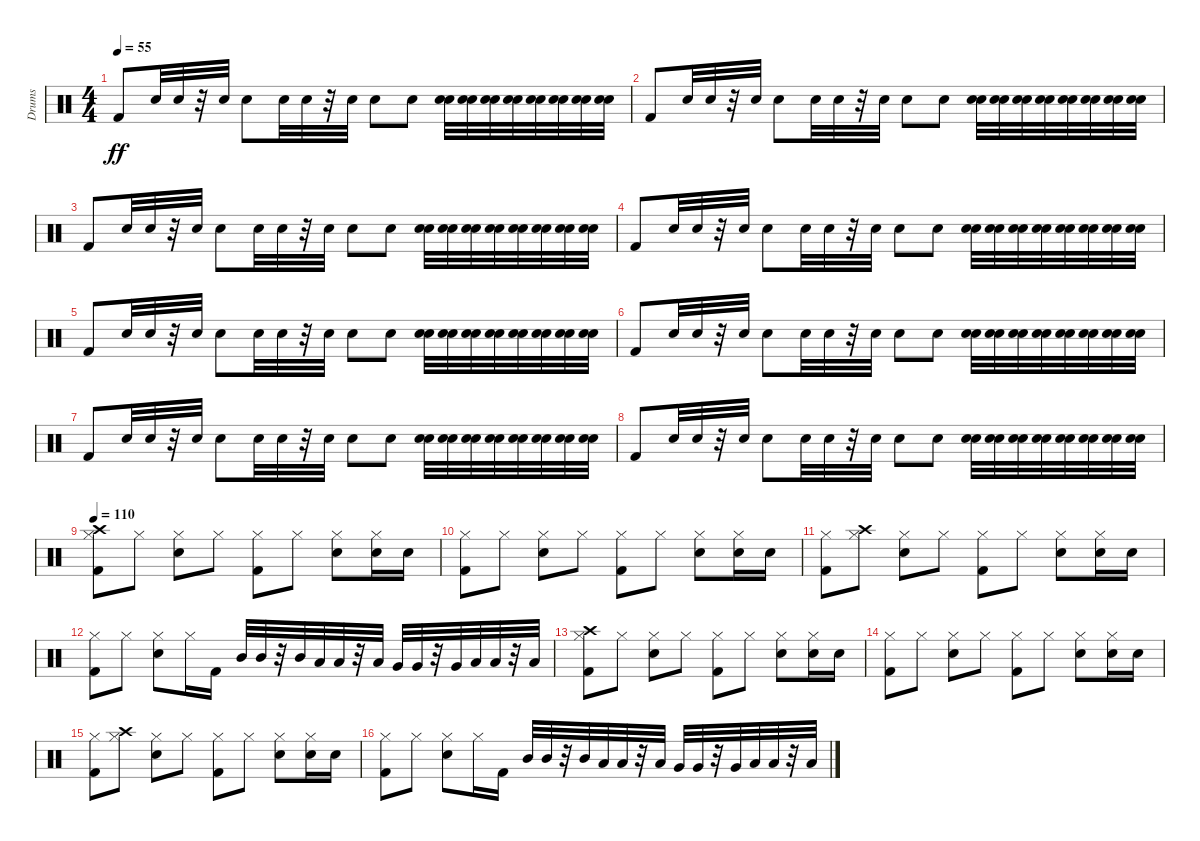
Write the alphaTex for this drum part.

\track ("Drums" "Drums") {instrument percussion}
\staff {score}
\articulation defaults
\ts (4 4)
\tempo 55
\clef neutral
\ks c "Kick (hit) 2".8{dy ff volume 4} "Snare (hit) 2".32 "Snare (hit) 2".32
r.32 "Snare (hit) 2".32 "Snare (hit) 2".8 "Snare (hit) 2".32 "Snare (hit) 2".32 r.32 "Snare (hit) 2".32 "Snare (hit) 2".8 "Snare (hit) 2".8 ("Snare (hit) 2" "Snare (hit) 2").32 ("Snare (hit) 2" "Snare (hit) 2").32 ("Snare (hit) 2" "Snare (hit) 2").32 ("Snare (hit) 2" "Snare (hit) 2").32 ("Snare (hit) 2" "Snare (hit) 2").32 ("Snare (hit) 2" "Snare (hit) 2").32 ("Snare (hit) 2" "Snare (hit) 2").32 ("Snare (hit) 2" "Snare (hit) 2").32 |
"Kick (hit) 2".8 "Snare (hit) 2".32 "Snare (hit) 2".32 r.32 "Snare (hit) 2".32 "Snare (hit) 2".8 "Snare (hit) 2".32 "Snare (hit) 2".32 r.32 "Snare (hit) 2".32 "Snare (hit) 2".8 "Snare (hit) 2".8 ("Snare (hit) 2" "Snare (hit) 2").32 ("Snare (hit) 2" "Snare (hit) 2").32 ("Snare (hit) 2" "Snare (hit) 2").32 ("Snare (hit) 2" "Snare (hit) 2").32 ("Snare (hit) 2" "Snare (hit) 2").32 ("Snare (hit) 2" "Snare (hit) 2").32 ("Snare (hit) 2" "Snare (hit) 2").32 ("Snare (hit) 2" "Snare (hit) 2").32 |
"Kick (hit) 2".8 "Snare (hit) 2".32 "Snare (hit) 2".32 r.32 "Snare (hit) 2".32 "Snare (hit) 2".8 "Snare (hit) 2".32 "Snare (hit) 2".32 r.32 "Snare (hit) 2".32 "Snare (hit) 2".8 "Snare (hit) 2".8 ("Snare (hit) 2" "Snare (hit) 2").32 ("Snare (hit) 2" "Snare (hit) 2").32 ("Snare (hit) 2" "Snare (hit) 2").32 ("Snare (hit) 2" "Snare (hit) 2").32 ("Snare (hit) 2" "Snare (hit) 2").32 ("Snare (hit) 2" "Snare (hit) 2").32 ("Snare (hit) 2" "Snare (hit) 2").32 ("Snare (hit) 2" "Snare (hit) 2").32 |
"Kick (hit) 2".8 "Snare (hit) 2".32 "Snare (hit) 2".32 r.32 "Snare (hit) 2".32 "Snare (hit) 2".8 "Snare (hit) 2".32 "Snare (hit) 2".32 r.32 "Snare (hit) 2".32 "Snare (hit) 2".8 "Snare (hit) 2".8 ("Snare (hit) 2" "Snare (hit) 2").32 ("Snare (hit) 2" "Snare (hit) 2").32 ("Snare (hit) 2" "Snare (hit) 2").32 ("Snare (hit) 2" "Snare (hit) 2").32 ("Snare (hit) 2" "Snare (hit) 2").32 ("Snare (hit) 2" "Snare (hit) 2").32 ("Snare (hit) 2" "Snare (hit) 2").32 ("Snare (hit) 2" "Snare (hit) 2").32 |
"Kick (hit) 2".8 "Snare (hit) 2".32 "Snare (hit) 2".32 r.32 "Snare (hit) 2".32 "Snare (hit) 2".8 "Snare (hit) 2".32 "Snare (hit) 2".32 r.32 "Snare (hit) 2".32 "Snare (hit) 2".8 "Snare (hit) 2".8 ("Snare (hit) 2" "Snare (hit) 2").32 ("Snare (hit) 2" "Snare (hit) 2").32 ("Snare (hit) 2" "Snare (hit) 2").32 ("Snare (hit) 2" "Snare (hit) 2").32 ("Snare (hit) 2" "Snare (hit) 2").32 ("Snare (hit) 2" "Snare (hit) 2").32 ("Snare (hit) 2" "Snare (hit) 2").32 ("Snare (hit) 2" "Snare (hit) 2").32 |
"Kick (hit) 2".8 "Snare (hit) 2".32 "Snare (hit) 2".32 r.32 "Snare (hit) 2".32 "Snare (hit) 2".8 "Snare (hit) 2".32 "Snare (hit) 2".32 r.32 "Snare (hit) 2".32 "Snare (hit) 2".8 "Snare (hit) 2".8 ("Snare (hit) 2" "Snare (hit) 2").32 ("Snare (hit) 2" "Snare (hit) 2").32 ("Snare (hit) 2" "Snare (hit) 2").32 ("Snare (hit) 2" "Snare (hit) 2").32 ("Snare (hit) 2" "Snare (hit) 2").32 ("Snare (hit) 2" "Snare (hit) 2").32 ("Snare (hit) 2" "Snare (hit) 2").32 ("Snare (hit) 2" "Snare (hit) 2").32 |
"Kick (hit) 2".8 "Snare (hit) 2".32 "Snare (hit) 2".32 r.32 "Snare (hit) 2".32 "Snare (hit) 2".8 "Snare (hit) 2".32 "Snare (hit) 2".32 r.32 "Snare (hit) 2".32 "Snare (hit) 2".8 "Snare (hit) 2".8 ("Snare (hit) 2" "Snare (hit) 2").32 ("Snare (hit) 2" "Snare (hit) 2").32 ("Snare (hit) 2" "Snare (hit) 2").32 ("Snare (hit) 2" "Snare (hit) 2").32 ("Snare (hit) 2" "Snare (hit) 2").32 ("Snare (hit) 2" "Snare (hit) 2").32 ("Snare (hit) 2" "Snare (hit) 2").32 ("Snare (hit) 2" "Snare (hit) 2").32 |
"Kick (hit) 2".8 "Snare (hit) 2".32 "Snare (hit) 2".32 r.32 "Snare (hit) 2".32 "Snare (hit) 2".8 "Snare (hit) 2".32 "Snare (hit) 2".32 r.32 "Snare (hit) 2".32 "Snare (hit) 2".8 "Snare (hit) 2".8 ("Snare (hit) 2" "Snare (hit) 2").32 ("Snare (hit) 2" "Snare (hit) 2").32 ("Snare (hit) 2" "Snare (hit) 2").32 ("Snare (hit) 2" "Snare (hit) 2").32 ("Snare (hit) 2" "Snare (hit) 2").32 ("Snare (hit) 2" "Snare (hit) 2").32 ("Snare (hit) 2" "Snare (hit) 2").32 ("Snare (hit) 2" "Snare (hit) 2").32 |
\tempo 110
("Kick (hit) 2" "Hi-Hat (closed)" "Crash high (hit)").8{volume 16} "Hi-Hat (closed)".8 ("Snare (hit) 2" "Hi-Hat (closed)").8 "Hi-Hat (closed)".8 ("Kick (hit) 2" "Hi-Hat (closed)").8 "Hi-Hat (closed)".8 ("Snare (hit) 2" "Hi-Hat (closed)").8 ("Snare (hit) 2" "Hi-Hat (closed)").16 "Snare (hit) 2".16 |
("Kick (hit) 2" "Hi-Hat (closed)").8 "Hi-Hat (closed)".8 ("Snare (hit) 2" "Hi-Hat (closed)").8 "Hi-Hat (closed)".8 ("Kick (hit) 2" "Hi-Hat (closed)").8 "Hi-Hat (closed)".8 ("Snare (hit) 2" "Hi-Hat (closed)").8 ("Snare (hit) 2" "Hi-Hat (closed)").16 "Snare (hit) 2".16 |
("Kick (hit) 2" "Hi-Hat (closed)").8 ("Hi-Hat (closed)" "Crash high (hit)").8 ("Snare (hit) 2" "Hi-Hat (closed)").8 "Hi-Hat (closed)".8 ("Kick (hit) 2" "Hi-Hat (closed)").8 "Hi-Hat (closed)".8 ("Snare (hit) 2" "Hi-Hat (closed)").8 ("Snare (hit) 2" "Hi-Hat (closed)").16 "Snare (hit) 2".16 |
("Kick (hit) 2" "Hi-Hat (closed)").8 "Hi-Hat (closed)".8 ("Snare (hit) 2" "Hi-Hat (closed)").8 "Hi-Hat (closed)".16 "Kick (hit) 2".16 "Mid Tom (hit)".32 "Mid Tom (hit)".32 r.32 "Mid Tom (hit)".32 "Low Tom (hit)".32 "Low Tom (hit)".32 r.32 "Low Tom (hit)".32 "Very Low Tom (hit)".32 "Very Low Tom (hit)".32 r.32 "Very Low Tom (hit)".32 "Low Floor Tom (hit)".32 "Low Floor Tom (hit)".32 r.32 "Low Floor Tom (hit)".32 |
("Kick (hit) 2" "Hi-Hat (closed)" "Crash high (hit)").8 "Hi-Hat (closed)".8 ("Snare (hit) 2" "Hi-Hat (closed)").8 "Hi-Hat (closed)".8 ("Kick (hit) 2" "Hi-Hat (closed)").8 "Hi-Hat (closed)".8 ("Snare (hit) 2" "Hi-Hat (closed)").8 ("Snare (hit) 2" "Hi-Hat (closed)").16 "Snare (hit) 2".16 |
("Kick (hit) 2" "Hi-Hat (closed)").8 "Hi-Hat (closed)".8 ("Snare (hit) 2" "Hi-Hat (closed)").8 "Hi-Hat (closed)".8 ("Kick (hit) 2" "Hi-Hat (closed)").8 "Hi-Hat (closed)".8 ("Snare (hit) 2" "Hi-Hat (closed)").8 ("Snare (hit) 2" "Hi-Hat (closed)").16 "Snare (hit) 2".16 |
("Kick (hit) 2" "Hi-Hat (closed)").8 ("Hi-Hat (closed)" "Crash high (hit)").8 ("Snare (hit) 2" "Hi-Hat (closed)").8 "Hi-Hat (closed)".8 ("Kick (hit) 2" "Hi-Hat (closed)").8 "Hi-Hat (closed)".8 ("Snare (hit) 2" "Hi-Hat (closed)").8 ("Snare (hit) 2" "Hi-Hat (closed)").16 "Snare (hit) 2".16 |
("Kick (hit) 2" "Hi-Hat (closed)").8 "Hi-Hat (closed)".8 ("Snare (hit) 2" "Hi-Hat (closed)").8 "Hi-Hat (closed)".16 "Kick (hit) 2".16 "Mid Tom (hit)".32 "Mid Tom (hit)".32 r.32 "Mid Tom (hit)".32 "Low Tom (hit)".32 "Low Tom (hit)".32 r.32 "Low Tom (hit)".32 "Very Low Tom (hit)".32 "Very Low Tom (hit)".32 r.32 "Very Low Tom (hit)".32 "Low Floor Tom (hit)".32 "Low Floor Tom (hit)".32 r.32 "Low Floor Tom (hit)".32
